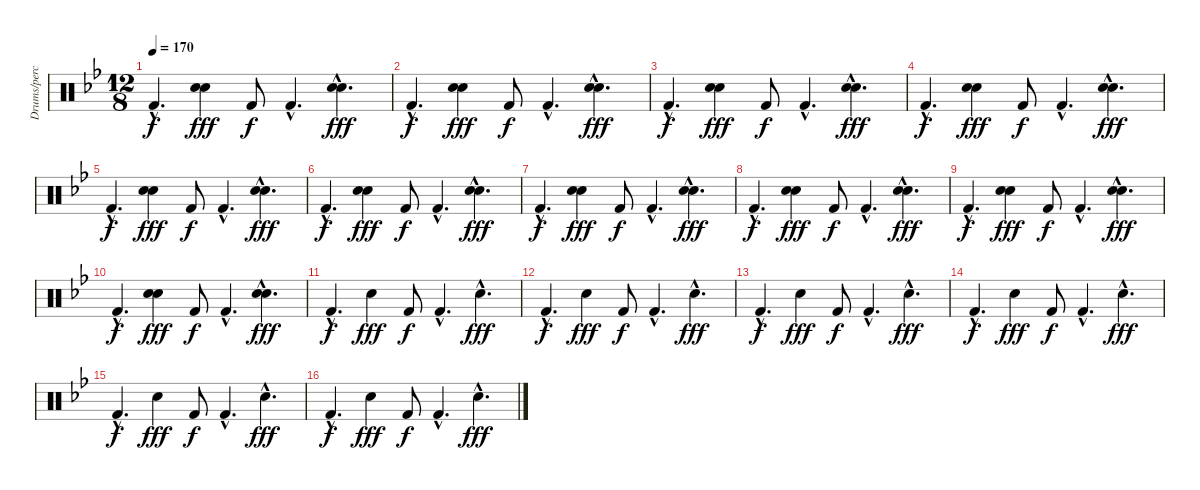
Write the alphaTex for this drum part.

\track ("Drums/percussion" "Drums/perc") {instrument percussion}
\staff {score}
\articulation defaults
\ts (12 8)
\tempo 170
\clef neutral
\ks bb "Kick (hit) 2"{hac}.4{d dy f}
("Hand Clap (hit)" "Snare (hit) 2").4{dy fff} "Kick (hit) 2".8{dy f} "Kick (hit) 2"{hac}.4{d} ("Hand Clap (hit)"{hac} "Snare (hit) 2"{hac}).4{d dy fff} |
"Kick (hit) 2"{hac}.4{d dy f} ("Hand Clap (hit)" "Snare (hit) 2").4{dy fff} "Kick (hit) 2".8{dy f} "Kick (hit) 2"{hac}.4{d} ("Hand Clap (hit)"{hac} "Snare (hit) 2"{hac}).4{d dy fff} |
"Kick (hit) 2"{hac}.4{d dy f} ("Hand Clap (hit)" "Snare (hit) 2").4{dy fff} "Kick (hit) 2".8{dy f} "Kick (hit) 2"{hac}.4{d} ("Hand Clap (hit)"{hac} "Snare (hit) 2"{hac}).4{d dy fff} |
"Kick (hit) 2"{hac}.4{d dy f} ("Hand Clap (hit)" "Snare (hit) 2").4{dy fff} "Kick (hit) 2".8{dy f} "Kick (hit) 2"{hac}.4{d} ("Hand Clap (hit)"{hac} "Snare (hit) 2"{hac}).4{d dy fff} |
"Kick (hit) 2"{hac}.4{d dy f} ("Hand Clap (hit)" "Snare (hit) 2").4{dy fff} "Kick (hit) 2".8{dy f} "Kick (hit) 2"{hac}.4{d} ("Hand Clap (hit)"{hac} "Snare (hit) 2"{hac}).4{d dy fff} |
"Kick (hit) 2"{hac}.4{d dy f} ("Hand Clap (hit)" "Snare (hit) 2").4{dy fff} "Kick (hit) 2".8{dy f} "Kick (hit) 2"{hac}.4{d} ("Hand Clap (hit)"{hac} "Snare (hit) 2"{hac}).4{d dy fff} |
"Kick (hit) 2"{hac}.4{d dy f} ("Hand Clap (hit)" "Snare (hit) 2").4{dy fff} "Kick (hit) 2".8{dy f} "Kick (hit) 2"{hac}.4{d} ("Hand Clap (hit)"{hac} "Snare (hit) 2"{hac}).4{d dy fff} |
"Kick (hit) 2"{hac}.4{d dy f} ("Hand Clap (hit)" "Snare (hit) 2").4{dy fff} "Kick (hit) 2".8{dy f} "Kick (hit) 2"{hac}.4{d} ("Hand Clap (hit)"{hac} "Snare (hit) 2"{hac}).4{d dy fff} |
"Kick (hit) 2"{hac}.4{d dy f} ("Hand Clap (hit)" "Snare (hit) 2").4{dy fff} "Kick (hit) 2".8{dy f} "Kick (hit) 2"{hac}.4{d} ("Hand Clap (hit)"{hac} "Snare (hit) 2"{hac}).4{d dy fff} |
"Kick (hit) 2"{hac}.4{d dy f} ("Hand Clap (hit)" "Snare (hit) 2").4{dy fff} "Kick (hit) 2".8{dy f} "Kick (hit) 2"{hac}.4{d} ("Hand Clap (hit)"{hac} "Snare (hit) 2"{hac}).4{d dy fff} |
"Kick (hit) 2"{hac}.4{d dy f} "Hand Clap (hit)".4{dy fff} "Kick (hit) 2".8{dy f} "Kick (hit) 2"{hac}.4{d} "Hand Clap (hit)"{hac}.4{d dy fff} |
"Kick (hit) 2"{hac}.4{d dy f} "Hand Clap (hit)".4{dy fff} "Kick (hit) 2".8{dy f} "Kick (hit) 2"{hac}.4{d} "Hand Clap (hit)"{hac}.4{d dy fff} |
"Kick (hit) 2"{hac}.4{d dy f} "Hand Clap (hit)".4{dy fff} "Kick (hit) 2".8{dy f} "Kick (hit) 2"{hac}.4{d} "Hand Clap (hit)"{hac}.4{d dy fff} |
"Kick (hit) 2"{hac}.4{d dy f volume 10} "Hand Clap (hit)".4{dy fff} "Kick (hit) 2".8{dy f} "Kick (hit) 2"{hac}.4{d} "Hand Clap (hit)"{hac}.4{d dy fff} |
"Kick (hit) 2"{hac}.4{d dy f volume 5} "Hand Clap (hit)".4{dy fff} "Kick (hit) 2".8{dy f} "Kick (hit) 2"{hac}.4{d} "Hand Clap (hit)"{hac}.4{d dy fff} |
"Kick (hit) 2"{hac}.4{d dy f volume 0} "Hand Clap (hit)".4{dy fff} "Kick (hit) 2".8{dy f} "Kick (hit) 2"{hac}.4{d} "Hand Clap (hit)"{hac}.4{d dy fff}
